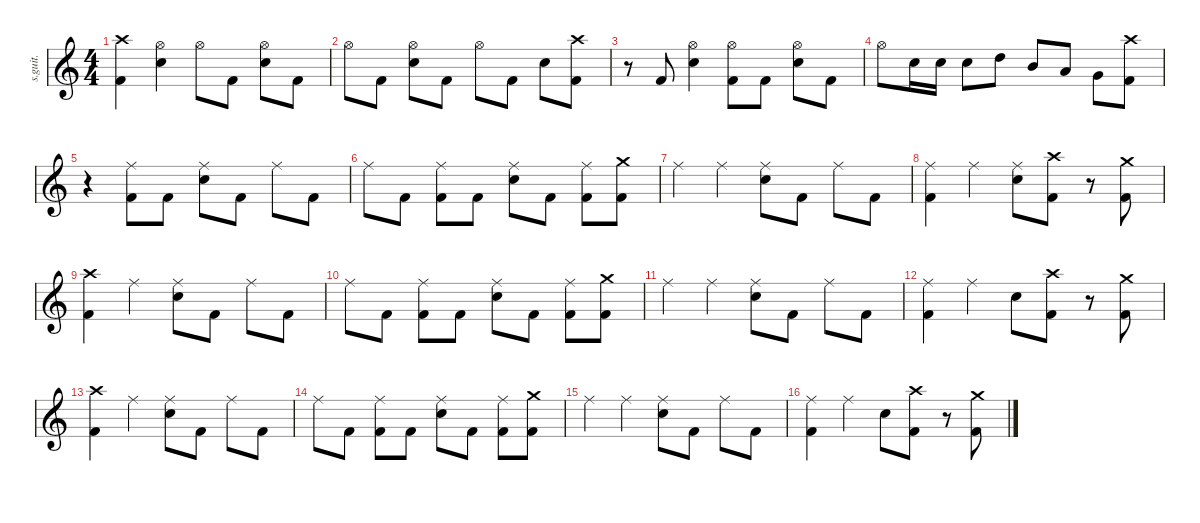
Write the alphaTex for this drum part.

\defaultSystemsLayout 4
\hideDynamics
\bracketExtendMode nobrackets
\track ("Nick Menza (Drums)" "s.guit.") {instrument percussion}
\staff {score}
\articulation defaults
\ts (4 4)
\tempo (196 hide)
\clef g2
\ks c
("Crash high (hit)" "Kick (hit) 2").4{lyrics (0 "") lyrics (1 "") lyrics (2 "") lyrics (3 "") lyrics (4 "") dy f} ("Hi-Hat (open)" "Snare (hit) 2").4{lyrics (0 "") lyrics (1 "") lyrics (2 "") lyrics (3 "") lyrics (4 "")} "Hi-Hat (open)".8{lyrics (0 "") lyrics (1 "") lyrics (2 "") lyrics (3 "") lyrics (4 "")} "Kick (hit) 2".8{lyrics (0 "") lyrics (1 "") lyrics (2 "") lyrics (3 "") lyrics (4 "") dy fff} ("Hi-Hat (open)" "Snare (hit) 2").8{lyrics (0 "") lyrics (1 "") lyrics (2 "") lyrics (3 "") lyrics (4 "") dy f} "Kick (hit) 2".8{lyrics (0 "") lyrics (1 "") lyrics (2 "") lyrics (3 "") lyrics (4 "") dy fff} |
"Hi-Hat (open)".8{lyrics (0 "") lyrics (1 "") lyrics (2 "") lyrics (3 "") lyrics (4 "") dy f} "Kick (hit) 2".8{lyrics (0 "") lyrics (1 "") lyrics (2 "") lyrics (3 "") lyrics (4 "") dy fff} ("Hi-Hat (open)" "Snare (hit) 2").8{lyrics (0 "") lyrics (1 "") lyrics (2 "") lyrics (3 "") lyrics (4 "") dy f} "Kick (hit) 2".8{lyrics (0 "") lyrics (1 "") lyrics (2 "") lyrics (3 "") lyrics (4 "") dy fff} "Hi-Hat (open)".8{lyrics (0 "") lyrics (1 "") lyrics (2 "") lyrics (3 "") lyrics (4 "") dy f} "Kick (hit) 2".8{lyrics (0 "") lyrics (1 "") lyrics (2 "") lyrics (3 "") lyrics (4 "") dy fff} "Snare (hit) 2".8{lyrics (0 "") lyrics (1 "") lyrics (2 "") lyrics (3 "") lyrics (4 "") dy f} ("Crash high (hit)" "Kick (hit) 2").8{lyrics (0 "") lyrics (1 "") lyrics (2 "") lyrics (3 "") lyrics (4 "")} |
r.8 "Kick (hit) 2".8{lyrics (0 "") lyrics (1 "") lyrics (2 "") lyrics (3 "") lyrics (4 "") dy fff} ("Hi-Hat (open)" "Snare (hit) 2").4{lyrics (0 "") lyrics (1 "") lyrics (2 "") lyrics (3 "") lyrics (4 "") dy f} ("Hi-Hat (open)" "Kick (hit) 2").8{lyrics (0 "") lyrics (1 "") lyrics (2 "") lyrics (3 "") lyrics (4 "")} "Kick (hit) 2".8{lyrics (0 "") lyrics (1 "") lyrics (2 "") lyrics (3 "") lyrics (4 "") dy fff} ("Hi-Hat (open)" "Snare (hit) 2").8{lyrics (0 "") lyrics (1 "") lyrics (2 "") lyrics (3 "") lyrics (4 "") dy f} "Kick (hit) 2".8{lyrics (0 "") lyrics (1 "") lyrics (2 "") lyrics (3 "") lyrics (4 "") dy fff} |
"Hi-Hat (open)".8{lyrics (0 "") lyrics (1 "") lyrics (2 "") lyrics (3 "") lyrics (4 "") dy f} "Snare (hit) 2".16{lyrics (0 "") lyrics (1 "") lyrics (2 "") lyrics (3 "") lyrics (4 "")} "Snare (hit) 2".16{lyrics (0 "") lyrics (1 "") lyrics (2 "") lyrics (3 "") lyrics (4 "")} "Snare (hit) 2".8{lyrics (0 "") lyrics (1 "") lyrics (2 "") lyrics (3 "") lyrics (4 "")} "High Tom (hit)".8{lyrics (0 "") lyrics (1 "") lyrics (2 "") lyrics (3 "") lyrics (4 "") dy fff} "Mid Tom (hit)".8{lyrics (0 "") lyrics (1 "") lyrics (2 "") lyrics (3 "") lyrics (4 "")} "Low Tom (hit)".8{lyrics (0 "") lyrics (1 "") lyrics (2 "") lyrics (3 "") lyrics (4 "")} "Very Low Tom (hit)".8{lyrics (0 "") lyrics (1 "") lyrics (2 "") lyrics (3 "") lyrics (4 "") dy f} ("Crash high (hit)" "Kick (hit) 2").8{lyrics (0 "") lyrics (1 "") lyrics (2 "") lyrics (3 "") lyrics (4 "")} |
r.4 ("Ride (middle)" "Kick (hit) 2").8{lyrics (0 "") lyrics (1 "") lyrics (2 "") lyrics (3 "") lyrics (4 "")} "Kick (hit) 2".8{lyrics (0 "") lyrics (1 "") lyrics (2 "") lyrics (3 "") lyrics (4 "") dy fff} ("Ride (middle)" "Snare (hit) 2").8{lyrics (0 "") lyrics (1 "") lyrics (2 "") lyrics (3 "") lyrics (4 "") dy f} "Kick (hit) 2".8{lyrics (0 "") lyrics (1 "") lyrics (2 "") lyrics (3 "") lyrics (4 "") dy fff} "Ride (middle)".8{lyrics (0 "") lyrics (1 "") lyrics (2 "") lyrics (3 "") lyrics (4 "") dy f} "Kick (hit) 2".8{lyrics (0 "") lyrics (1 "") lyrics (2 "") lyrics (3 "") lyrics (4 "") dy fff} |
"Ride (middle)".8{lyrics (0 "") lyrics (1 "") lyrics (2 "") lyrics (3 "") lyrics (4 "") dy f} "Kick (hit) 2".8{lyrics (0 "") lyrics (1 "") lyrics (2 "") lyrics (3 "") lyrics (4 "") dy fff} ("Ride (middle)" "Kick (hit) 2").8{lyrics (0 "") lyrics (1 "") lyrics (2 "") lyrics (3 "") lyrics (4 "") dy f} "Kick (hit) 2".8{lyrics (0 "") lyrics (1 "") lyrics (2 "") lyrics (3 "") lyrics (4 "") dy fff} ("Ride (middle)" "Snare (hit) 2").8{lyrics (0 "") lyrics (1 "") lyrics (2 "") lyrics (3 "") lyrics (4 "") dy f} "Kick (hit) 2".8{lyrics (0 "") lyrics (1 "") lyrics (2 "") lyrics (3 "") lyrics (4 "") dy fff} ("Ride (middle)" "Kick (hit) 2").8{lyrics (0 "") lyrics (1 "") lyrics (2 "") lyrics (3 "") lyrics (4 "") dy f} ("Crash medium (hit)" "Kick (hit) 2").8{lyrics (0 "") lyrics (1 "") lyrics (2 "") lyrics (3 "") lyrics (4 "")} |
"Ride (middle)".4{lyrics (0 "") lyrics (1 "") lyrics (2 "") lyrics (3 "") lyrics (4 "")} "Ride (middle)".4{lyrics (0 "") lyrics (1 "") lyrics (2 "") lyrics (3 "") lyrics (4 "")} ("Ride (middle)" "Snare (hit) 2").8{lyrics (0 "") lyrics (1 "") lyrics (2 "") lyrics (3 "") lyrics (4 "")} "Kick (hit) 2".8{lyrics (0 "") lyrics (1 "") lyrics (2 "") lyrics (3 "") lyrics (4 "") dy fff} "Ride (middle)".8{lyrics (0 "") lyrics (1 "") lyrics (2 "") lyrics (3 "") lyrics (4 "") dy f} "Kick (hit) 2".8{lyrics (0 "") lyrics (1 "") lyrics (2 "") lyrics (3 "") lyrics (4 "") dy fff} |
("Ride (middle)" "Kick (hit) 2").4{lyrics (0 "") lyrics (1 "") lyrics (2 "") lyrics (3 "") lyrics (4 "") dy f} "Ride (middle)".4{lyrics (0 "") lyrics (1 "") lyrics (2 "") lyrics (3 "") lyrics (4 "")} ("Ride (middle)" "Snare (hit) 2").8{lyrics (0 "") lyrics (1 "") lyrics (2 "") lyrics (3 "") lyrics (4 "")} ("Crash high (hit)" "Kick (hit) 2").8{lyrics (0 "") lyrics (1 "") lyrics (2 "") lyrics (3 "") lyrics (4 "")} r.8 ("Crash medium (hit)" "Kick (hit) 2").8{lyrics (0 "") lyrics (1 "") lyrics (2 "") lyrics (3 "") lyrics (4 "")} |
("Crash high (hit)" "Kick (hit) 2").4{lyrics (0 "") lyrics (1 "") lyrics (2 "") lyrics (3 "") lyrics (4 "")} "Ride (middle)".4{lyrics (0 "") lyrics (1 "") lyrics (2 "") lyrics (3 "") lyrics (4 "")} ("Ride (middle)" "Snare (hit) 2").8{lyrics (0 "") lyrics (1 "") lyrics (2 "") lyrics (3 "") lyrics (4 "")} "Kick (hit) 2".8{lyrics (0 "") lyrics (1 "") lyrics (2 "") lyrics (3 "") lyrics (4 "") dy fff} "Ride (middle)".8{lyrics (0 "") lyrics (1 "") lyrics (2 "") lyrics (3 "") lyrics (4 "") dy f} "Kick (hit) 2".8{lyrics (0 "") lyrics (1 "") lyrics (2 "") lyrics (3 "") lyrics (4 "") dy fff} |
"Ride (middle)".8{lyrics (0 "") lyrics (1 "") lyrics (2 "") lyrics (3 "") lyrics (4 "") dy f} "Kick (hit) 2".8{lyrics (0 "") lyrics (1 "") lyrics (2 "") lyrics (3 "") lyrics (4 "") dy fff} ("Ride (middle)" "Kick (hit) 2").8{lyrics (0 "") lyrics (1 "") lyrics (2 "") lyrics (3 "") lyrics (4 "") dy f} "Kick (hit) 2".8{lyrics (0 "") lyrics (1 "") lyrics (2 "") lyrics (3 "") lyrics (4 "") dy fff} ("Ride (middle)" "Snare (hit) 2").8{lyrics (0 "") lyrics (1 "") lyrics (2 "") lyrics (3 "") lyrics (4 "") dy f} "Kick (hit) 2".8{lyrics (0 "") lyrics (1 "") lyrics (2 "") lyrics (3 "") lyrics (4 "") dy fff} ("Ride (middle)" "Kick (hit) 2").8{lyrics (0 "") lyrics (1 "") lyrics (2 "") lyrics (3 "") lyrics (4 "") dy f} ("Crash medium (hit)" "Kick (hit) 2").8{lyrics (0 "") lyrics (1 "") lyrics (2 "") lyrics (3 "") lyrics (4 "")} |
"Ride (middle)".4{lyrics (0 "") lyrics (1 "") lyrics (2 "") lyrics (3 "") lyrics (4 "")} "Ride (middle)".4{lyrics (0 "") lyrics (1 "") lyrics (2 "") lyrics (3 "") lyrics (4 "")} ("Ride (middle)" "Snare (hit) 2").8{lyrics (0 "") lyrics (1 "") lyrics (2 "") lyrics (3 "") lyrics (4 "")} "Kick (hit) 2".8{lyrics (0 "") lyrics (1 "") lyrics (2 "") lyrics (3 "") lyrics (4 "") dy fff} "Ride (middle)".8{lyrics (0 "") lyrics (1 "") lyrics (2 "") lyrics (3 "") lyrics (4 "") dy f} "Kick (hit) 2".8{lyrics (0 "") lyrics (1 "") lyrics (2 "") lyrics (3 "") lyrics (4 "") dy fff} |
("Ride (middle)" "Kick (hit) 2").4{lyrics (0 "") lyrics (1 "") lyrics (2 "") lyrics (3 "") lyrics (4 "") dy f} "Ride (middle)".4{lyrics (0 "") lyrics (1 "") lyrics (2 "") lyrics (3 "") lyrics (4 "")} "Snare (hit) 2".8{lyrics (0 "") lyrics (1 "") lyrics (2 "") lyrics (3 "") lyrics (4 "")} ("Crash high (hit)" "Kick (hit) 2").8{lyrics (0 "") lyrics (1 "") lyrics (2 "") lyrics (3 "") lyrics (4 "")} r.8 ("Crash medium (hit)" "Kick (hit) 2").8{lyrics (0 "") lyrics (1 "") lyrics (2 "") lyrics (3 "") lyrics (4 "")} |
("Crash high (hit)" "Kick (hit) 2").4{lyrics (0 "") lyrics (1 "") lyrics (2 "") lyrics (3 "") lyrics (4 "")} "Ride (middle)".4{lyrics (0 "") lyrics (1 "") lyrics (2 "") lyrics (3 "") lyrics (4 "")} ("Ride (middle)" "Snare (hit) 2").8{lyrics (0 "") lyrics (1 "") lyrics (2 "") lyrics (3 "") lyrics (4 "")} "Kick (hit) 2".8{lyrics (0 "") lyrics (1 "") lyrics (2 "") lyrics (3 "") lyrics (4 "") dy fff} "Ride (middle)".8{lyrics (0 "") lyrics (1 "") lyrics (2 "") lyrics (3 "") lyrics (4 "") dy f} "Kick (hit) 2".8{lyrics (0 "") lyrics (1 "") lyrics (2 "") lyrics (3 "") lyrics (4 "") dy fff} |
"Ride (middle)".8{lyrics (0 "") lyrics (1 "") lyrics (2 "") lyrics (3 "") lyrics (4 "") dy f} "Kick (hit) 2".8{lyrics (0 "") lyrics (1 "") lyrics (2 "") lyrics (3 "") lyrics (4 "") dy fff} ("Ride (middle)" "Kick (hit) 2").8{lyrics (0 "") lyrics (1 "") lyrics (2 "") lyrics (3 "") lyrics (4 "") dy f} "Kick (hit) 2".8{lyrics (0 "") lyrics (1 "") lyrics (2 "") lyrics (3 "") lyrics (4 "") dy fff} ("Ride (middle)" "Snare (hit) 2").8{lyrics (0 "") lyrics (1 "") lyrics (2 "") lyrics (3 "") lyrics (4 "") dy f} "Kick (hit) 2".8{lyrics (0 "") lyrics (1 "") lyrics (2 "") lyrics (3 "") lyrics (4 "") dy fff} ("Ride (middle)" "Kick (hit) 2").8{lyrics (0 "") lyrics (1 "") lyrics (2 "") lyrics (3 "") lyrics (4 "") dy f} ("Crash medium (hit)" "Kick (hit) 2").8{lyrics (0 "") lyrics (1 "") lyrics (2 "") lyrics (3 "") lyrics (4 "")} |
"Ride (middle)".4{lyrics (0 "") lyrics (1 "") lyrics (2 "") lyrics (3 "") lyrics (4 "")} "Ride (middle)".4{lyrics (0 "") lyrics (1 "") lyrics (2 "") lyrics (3 "") lyrics (4 "")} ("Ride (middle)" "Snare (hit) 2").8{lyrics (0 "") lyrics (1 "") lyrics (2 "") lyrics (3 "") lyrics (4 "")} "Kick (hit) 2".8{lyrics (0 "") lyrics (1 "") lyrics (2 "") lyrics (3 "") lyrics (4 "") dy fff} "Ride (middle)".8{lyrics (0 "") lyrics (1 "") lyrics (2 "") lyrics (3 "") lyrics (4 "") dy f} "Kick (hit) 2".8{lyrics (0 "") lyrics (1 "") lyrics (2 "") lyrics (3 "") lyrics (4 "") dy fff} |
("Ride (middle)" "Kick (hit) 2").4{lyrics (0 "") lyrics (1 "") lyrics (2 "") lyrics (3 "") lyrics (4 "") dy f} "Ride (middle)".4{lyrics (0 "") lyrics (1 "") lyrics (2 "") lyrics (3 "") lyrics (4 "")} "Snare (hit) 2".8{lyrics (0 "") lyrics (1 "") lyrics (2 "") lyrics (3 "") lyrics (4 "")} ("Crash high (hit)" "Kick (hit) 2").8{lyrics (0 "") lyrics (1 "") lyrics (2 "") lyrics (3 "") lyrics (4 "")} r.8 ("Crash medium (hit)" "Kick (hit) 2").8{lyrics (0 "") lyrics (1 "") lyrics (2 "") lyrics (3 "") lyrics (4 "")}
